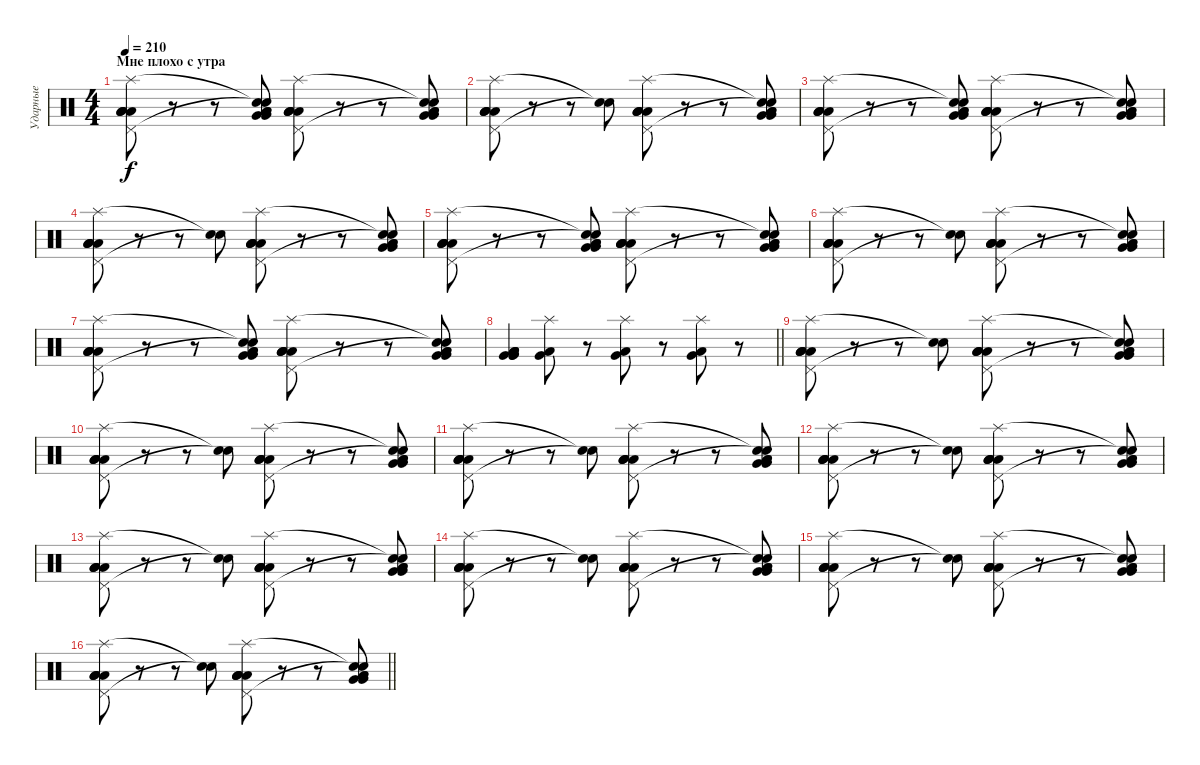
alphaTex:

\track ("Ударные" "Ударные") {instrument percussion}
\staff {score}
\articulation defaults
\ts (4 4)
\section ("" "Мне плохо с утра")
\tempo 210
\clef neutral
\ks c
("Splash (hit)" "Pedal Hi-Hat (hit)" "Low Tom (hit)" "Low Tom (hit)" "Low Tom (hit)" "Low Tom (hit)").8{dy f} r.8 r.8 ("Snare (hit)"{t} "Snare (hit)"{t} "Very Low Tom (hit)" "Very Low Tom (hit)" "Low Tom (hit)" "Low Tom (hit)").8 ("Splash (hit)" "Pedal Hi-Hat (hit)" "Low Tom (hit)" "Low Tom (hit)" "Low Tom (hit)" "Low Tom (hit)").8 r.8 r.8 ("Snare (hit)"{t} "Snare (hit)"{t} "Very Low Tom (hit)" "Very Low Tom (hit)" "Low Tom (hit)" "Low Tom (hit)").8 |
("Splash (hit)" "Pedal Hi-Hat (hit)" "Low Tom (hit)" "Low Tom (hit)" "Low Tom (hit)" "Low Tom (hit)").8 r.8 r.8 ("Snare (hit)"{t} "Snare (hit)"{t}).8 ("Splash (hit)" "Pedal Hi-Hat (hit)" "Low Tom (hit)" "Low Tom (hit)" "Low Tom (hit)" "Low Tom (hit)").8 r.8 r.8 ("Snare (hit)"{t} "Snare (hit)"{t} "Very Low Tom (hit)" "Very Low Tom (hit)" "Low Tom (hit)" "Low Tom (hit)").8 |
("Splash (hit)" "Pedal Hi-Hat (hit)" "Low Tom (hit)" "Low Tom (hit)" "Low Tom (hit)" "Low Tom (hit)").8 r.8 r.8 ("Snare (hit)"{t} "Snare (hit)"{t} "Very Low Tom (hit)" "Very Low Tom (hit)" "Low Tom (hit)" "Low Tom (hit)").8 ("Splash (hit)" "Pedal Hi-Hat (hit)" "Low Tom (hit)" "Low Tom (hit)" "Low Tom (hit)" "Low Tom (hit)").8 r.8 r.8 ("Snare (hit)"{t} "Snare (hit)"{t} "Very Low Tom (hit)" "Very Low Tom (hit)" "Low Tom (hit)" "Low Tom (hit)").8 |
("Splash (hit)" "Pedal Hi-Hat (hit)" "Low Tom (hit)" "Low Tom (hit)" "Low Tom (hit)" "Low Tom (hit)").8 r.8 r.8 ("Snare (hit)"{t} "Snare (hit)"{t}).8 ("Splash (hit)" "Pedal Hi-Hat (hit)" "Low Tom (hit)" "Low Tom (hit)" "Low Tom (hit)" "Low Tom (hit)").8 r.8 r.8 ("Snare (hit)"{t} "Snare (hit)"{t} "Very Low Tom (hit)" "Very Low Tom (hit)" "Low Tom (hit)" "Low Tom (hit)").8 |
("Splash (hit)" "Pedal Hi-Hat (hit)" "Low Tom (hit)" "Low Tom (hit)" "Low Tom (hit)" "Low Tom (hit)").8 r.8 r.8 ("Snare (hit)"{t} "Snare (hit)"{t} "Very Low Tom (hit)" "Very Low Tom (hit)" "Low Tom (hit)" "Low Tom (hit)").8 ("Splash (hit)" "Pedal Hi-Hat (hit)" "Low Tom (hit)" "Low Tom (hit)" "Low Tom (hit)" "Low Tom (hit)").8 r.8 r.8 ("Snare (hit)"{t} "Snare (hit)"{t} "Very Low Tom (hit)" "Very Low Tom (hit)" "Low Tom (hit)" "Low Tom (hit)").8 |
("Splash (hit)" "Pedal Hi-Hat (hit)" "Low Tom (hit)" "Low Tom (hit)" "Low Tom (hit)" "Low Tom (hit)").8 r.8 r.8 ("Snare (hit)"{t} "Snare (hit)"{t}).8 ("Splash (hit)" "Pedal Hi-Hat (hit)" "Low Tom (hit)" "Low Tom (hit)" "Low Tom (hit)" "Low Tom (hit)").8 r.8 r.8 ("Snare (hit)"{t} "Snare (hit)"{t} "Very Low Tom (hit)" "Very Low Tom (hit)" "Low Tom (hit)" "Low Tom (hit)").8 |
("Splash (hit)" "Pedal Hi-Hat (hit)" "Low Tom (hit)" "Low Tom (hit)" "Low Tom (hit)" "Low Tom (hit)").8 r.8 r.8 ("Snare (hit)"{t} "Snare (hit)"{t} "Very Low Tom (hit)" "Very Low Tom (hit)" "Low Tom (hit)" "Low Tom (hit)").8 ("Splash (hit)" "Pedal Hi-Hat (hit)" "Low Tom (hit)" "Low Tom (hit)" "Low Tom (hit)" "Low Tom (hit)").8 r.8 r.8 ("Snare (hit)"{t} "Snare (hit)"{t} "Very Low Tom (hit)" "Very Low Tom (hit)" "Low Tom (hit)" "Low Tom (hit)").8 |
\barLineRight lightlight
("Very Low Tom (hit)" "Very Low Tom (hit)" "Very Low Tom (hit)" "Low Tom (hit)" "Low Tom (hit)" "Low Tom (hit)").4 ("Very Low Tom (hit)" "Low Tom (hit)" "Splash (hit)").8 r.8 ("Very Low Tom (hit)" "Low Tom (hit)" "Splash (hit)").8 r.8 ("Very Low Tom (hit)" "Low Tom (hit)" "Splash (hit)").8 r.8 |
("Splash (hit)" "Pedal Hi-Hat (hit)" "Low Tom (hit)" "Low Tom (hit)" "Low Tom (hit)" "Low Tom (hit)").8 r.8 r.8 ("Snare (hit)"{t} "Snare (hit)"{t}).8 ("Splash (hit)" "Pedal Hi-Hat (hit)" "Low Tom (hit)" "Low Tom (hit)" "Low Tom (hit)" "Low Tom (hit)").8 r.8 r.8 ("Snare (hit)"{t} "Snare (hit)"{t} "Very Low Tom (hit)" "Very Low Tom (hit)" "Low Tom (hit)" "Low Tom (hit)").8 |
("Splash (hit)" "Pedal Hi-Hat (hit)" "Low Tom (hit)" "Low Tom (hit)" "Low Tom (hit)" "Low Tom (hit)").8 r.8 r.8 ("Snare (hit)"{t} "Snare (hit)"{t}).8 ("Splash (hit)" "Pedal Hi-Hat (hit)" "Low Tom (hit)" "Low Tom (hit)" "Low Tom (hit)" "Low Tom (hit)").8 r.8 r.8 ("Snare (hit)"{t} "Snare (hit)"{t} "Very Low Tom (hit)" "Very Low Tom (hit)" "Low Tom (hit)" "Low Tom (hit)").8 |
("Splash (hit)" "Pedal Hi-Hat (hit)" "Low Tom (hit)" "Low Tom (hit)" "Low Tom (hit)" "Low Tom (hit)").8 r.8 r.8 ("Snare (hit)"{t} "Snare (hit)"{t}).8 ("Splash (hit)" "Pedal Hi-Hat (hit)" "Low Tom (hit)" "Low Tom (hit)" "Low Tom (hit)" "Low Tom (hit)").8 r.8 r.8 ("Snare (hit)"{t} "Snare (hit)"{t} "Very Low Tom (hit)" "Very Low Tom (hit)" "Low Tom (hit)" "Low Tom (hit)").8 |
("Splash (hit)" "Pedal Hi-Hat (hit)" "Low Tom (hit)" "Low Tom (hit)" "Low Tom (hit)" "Low Tom (hit)").8 r.8 r.8 ("Snare (hit)"{t} "Snare (hit)"{t}).8 ("Splash (hit)" "Pedal Hi-Hat (hit)" "Low Tom (hit)" "Low Tom (hit)" "Low Tom (hit)" "Low Tom (hit)").8 r.8 r.8 ("Snare (hit)"{t} "Snare (hit)"{t} "Very Low Tom (hit)" "Very Low Tom (hit)" "Low Tom (hit)" "Low Tom (hit)").8 |
("Splash (hit)" "Pedal Hi-Hat (hit)" "Low Tom (hit)" "Low Tom (hit)" "Low Tom (hit)" "Low Tom (hit)").8 r.8 r.8 ("Snare (hit)"{t} "Snare (hit)"{t}).8 ("Splash (hit)" "Pedal Hi-Hat (hit)" "Low Tom (hit)" "Low Tom (hit)" "Low Tom (hit)" "Low Tom (hit)").8 r.8 r.8 ("Snare (hit)"{t} "Snare (hit)"{t} "Very Low Tom (hit)" "Very Low Tom (hit)" "Low Tom (hit)" "Low Tom (hit)").8 |
("Splash (hit)" "Pedal Hi-Hat (hit)" "Low Tom (hit)" "Low Tom (hit)" "Low Tom (hit)" "Low Tom (hit)").8 r.8 r.8 ("Snare (hit)"{t} "Snare (hit)"{t}).8 ("Splash (hit)" "Pedal Hi-Hat (hit)" "Low Tom (hit)" "Low Tom (hit)" "Low Tom (hit)" "Low Tom (hit)").8 r.8 r.8 ("Snare (hit)"{t} "Snare (hit)"{t} "Very Low Tom (hit)" "Very Low Tom (hit)" "Low Tom (hit)" "Low Tom (hit)").8 |
("Splash (hit)" "Pedal Hi-Hat (hit)" "Low Tom (hit)" "Low Tom (hit)" "Low Tom (hit)" "Low Tom (hit)").8 r.8 r.8 ("Snare (hit)"{t} "Snare (hit)"{t}).8 ("Splash (hit)" "Pedal Hi-Hat (hit)" "Low Tom (hit)" "Low Tom (hit)" "Low Tom (hit)" "Low Tom (hit)").8 r.8 r.8 ("Snare (hit)"{t} "Snare (hit)"{t} "Very Low Tom (hit)" "Very Low Tom (hit)" "Low Tom (hit)" "Low Tom (hit)").8 |
\barLineRight lightlight
("Splash (hit)" "Pedal Hi-Hat (hit)" "Low Tom (hit)" "Low Tom (hit)" "Low Tom (hit)" "Low Tom (hit)").8 r.8 r.8 ("Snare (hit)"{t} "Snare (hit)"{t}).8 ("Splash (hit)" "Pedal Hi-Hat (hit)" "Low Tom (hit)" "Low Tom (hit)" "Low Tom (hit)" "Low Tom (hit)").8 r.8 r.8 ("Snare (hit)"{t} "Snare (hit)"{t} "Very Low Tom (hit)" "Very Low Tom (hit)" "Low Tom (hit)" "Low Tom (hit)").8
